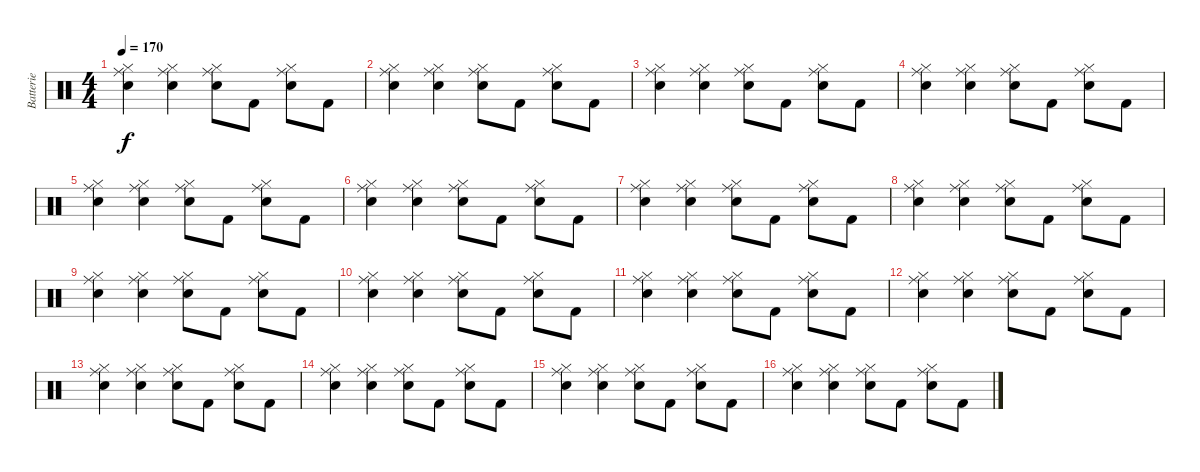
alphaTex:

\track ("Batterie" "Batterie") {instrument percussion}
\staff {score}
\articulation defaults
\ts (4 4)
\section ("" "")
\tempo 170
\clef neutral
\ks c
("Hi-Hat (closed)" "Snare (hit) 2" "Ride (middle)").4{dy f} ("Hi-Hat (closed)" "Snare (hit) 2" "Ride (middle)").4 ("Hi-Hat (closed)" "Snare (hit) 2" "Ride (middle)").8 "Kick (hit) 2".8 ("Hi-Hat (closed)" "Snare (hit) 2" "Ride (middle)").8 "Kick (hit) 2".8 |
("Hi-Hat (closed)" "Snare (hit) 2" "Ride (middle)").4 ("Hi-Hat (closed)" "Snare (hit) 2" "Ride (middle)").4 ("Hi-Hat (closed)" "Snare (hit) 2" "Ride (middle)").8 "Kick (hit) 2".8 ("Hi-Hat (closed)" "Snare (hit) 2" "Ride (middle)").8 "Kick (hit) 2".8 |
("Hi-Hat (closed)" "Snare (hit) 2" "Ride (middle)").4 ("Hi-Hat (closed)" "Snare (hit) 2" "Ride (middle)").4 ("Hi-Hat (closed)" "Snare (hit) 2" "Ride (middle)").8 "Kick (hit) 2".8 ("Hi-Hat (closed)" "Snare (hit) 2" "Ride (middle)").8 "Kick (hit) 2".8 |
("Hi-Hat (closed)" "Snare (hit) 2" "Ride (middle)").4 ("Hi-Hat (closed)" "Snare (hit) 2" "Ride (middle)").4 ("Hi-Hat (closed)" "Snare (hit) 2" "Ride (middle)").8 "Kick (hit) 2".8 ("Hi-Hat (closed)" "Snare (hit) 2" "Ride (middle)").8 "Kick (hit) 2".8 |
("Hi-Hat (closed)" "Snare (hit) 2" "Ride (middle)").4 ("Hi-Hat (closed)" "Snare (hit) 2" "Ride (middle)").4 ("Hi-Hat (closed)" "Snare (hit) 2" "Ride (middle)").8 "Kick (hit) 2".8 ("Hi-Hat (closed)" "Snare (hit) 2" "Ride (middle)").8 "Kick (hit) 2".8 |
("Hi-Hat (closed)" "Snare (hit) 2" "Ride (middle)").4 ("Hi-Hat (closed)" "Snare (hit) 2" "Ride (middle)").4 ("Hi-Hat (closed)" "Snare (hit) 2" "Ride (middle)").8 "Kick (hit) 2".8 ("Hi-Hat (closed)" "Snare (hit) 2" "Ride (middle)").8 "Kick (hit) 2".8 |
("Hi-Hat (closed)" "Snare (hit) 2" "Ride (middle)").4 ("Hi-Hat (closed)" "Snare (hit) 2" "Ride (middle)").4 ("Hi-Hat (closed)" "Snare (hit) 2" "Ride (middle)").8 "Kick (hit) 2".8 ("Hi-Hat (closed)" "Snare (hit) 2" "Ride (middle)").8 "Kick (hit) 2".8 |
("Hi-Hat (closed)" "Snare (hit) 2" "Ride (middle)").4 ("Hi-Hat (closed)" "Snare (hit) 2" "Ride (middle)").4 ("Hi-Hat (closed)" "Snare (hit) 2" "Ride (middle)").8 "Kick (hit) 2".8 ("Hi-Hat (closed)" "Snare (hit) 2" "Ride (middle)").8 "Kick (hit) 2".8 |
("Hi-Hat (closed)" "Snare (hit) 2" "Ride (middle)").4 ("Hi-Hat (closed)" "Snare (hit) 2" "Ride (middle)").4 ("Hi-Hat (closed)" "Snare (hit) 2" "Ride (middle)").8 "Kick (hit) 2".8 ("Hi-Hat (closed)" "Snare (hit) 2" "Ride (middle)").8 "Kick (hit) 2".8 |
("Hi-Hat (closed)" "Snare (hit) 2" "Ride (middle)").4 ("Hi-Hat (closed)" "Snare (hit) 2" "Ride (middle)").4 ("Hi-Hat (closed)" "Snare (hit) 2" "Ride (middle)").8 "Kick (hit) 2".8 ("Hi-Hat (closed)" "Snare (hit) 2" "Ride (middle)").8 "Kick (hit) 2".8 |
("Hi-Hat (closed)" "Snare (hit) 2" "Ride (middle)").4 ("Hi-Hat (closed)" "Snare (hit) 2" "Ride (middle)").4 ("Hi-Hat (closed)" "Snare (hit) 2" "Ride (middle)").8 "Kick (hit) 2".8 ("Hi-Hat (closed)" "Snare (hit) 2" "Ride (middle)").8 "Kick (hit) 2".8 |
("Hi-Hat (closed)" "Snare (hit) 2" "Ride (middle)").4 ("Hi-Hat (closed)" "Snare (hit) 2" "Ride (middle)").4 ("Hi-Hat (closed)" "Snare (hit) 2" "Ride (middle)").8 "Kick (hit) 2".8 ("Hi-Hat (closed)" "Snare (hit) 2" "Ride (middle)").8 "Kick (hit) 2".8 |
("Hi-Hat (closed)" "Snare (hit) 2" "Ride (middle)").4 ("Hi-Hat (closed)" "Snare (hit) 2" "Ride (middle)").4 ("Hi-Hat (closed)" "Snare (hit) 2" "Ride (middle)").8 "Kick (hit) 2".8 ("Hi-Hat (closed)" "Snare (hit) 2" "Ride (middle)").8 "Kick (hit) 2".8 |
("Hi-Hat (closed)" "Snare (hit) 2" "Ride (middle)").4 ("Hi-Hat (closed)" "Snare (hit) 2" "Ride (middle)").4 ("Hi-Hat (closed)" "Snare (hit) 2" "Ride (middle)").8 "Kick (hit) 2".8 ("Hi-Hat (closed)" "Snare (hit) 2" "Ride (middle)").8 "Kick (hit) 2".8 |
("Hi-Hat (closed)" "Snare (hit) 2" "Ride (middle)").4 ("Hi-Hat (closed)" "Snare (hit) 2" "Ride (middle)").4 ("Hi-Hat (closed)" "Snare (hit) 2" "Ride (middle)").8 "Kick (hit) 2".8 ("Hi-Hat (closed)" "Snare (hit) 2" "Ride (middle)").8 "Kick (hit) 2".8 |
("Hi-Hat (closed)" "Snare (hit) 2" "Ride (middle)").4 ("Hi-Hat (closed)" "Snare (hit) 2" "Ride (middle)").4 ("Hi-Hat (closed)" "Snare (hit) 2" "Ride (middle)").8 "Kick (hit) 2".8 ("Hi-Hat (closed)" "Snare (hit) 2" "Ride (middle)").8 "Kick (hit) 2".8
